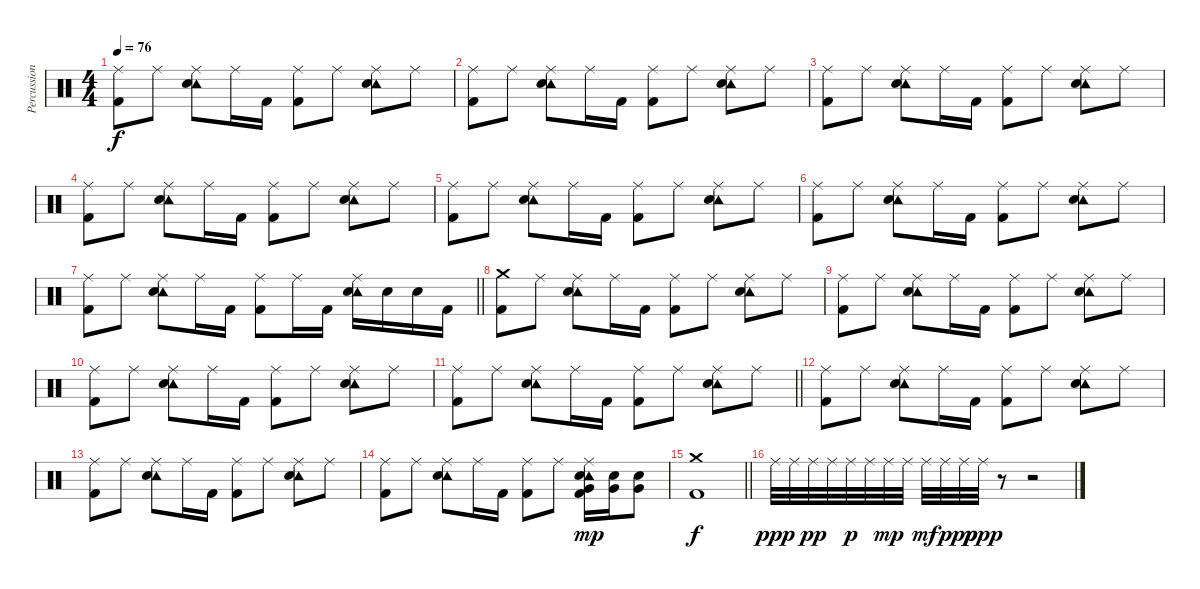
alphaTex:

\track ("Percussion" "Percussion") {instrument percussion}
\staff {score}
\articulation defaults
\ts (4 4)
\tempo 76
\clef neutral
\ks c
("Ride (middle)" "Kick (hit) 2").8{dy f} "Ride (middle)".8 ("Ride (middle)" "Tambourine (hit)" "Electric Snare (hit)").8 "Ride (middle)".16 "Kick (hit) 2".16 ("Ride (middle)" "Kick (hit) 2").8 "Ride (middle)".8 ("Ride (middle)" "Tambourine (hit)" "Electric Snare (hit)").8 "Ride (middle)".8 |
("Ride (middle)" "Kick (hit) 2").8 "Ride (middle)".8 ("Ride (middle)" "Tambourine (hit)" "Electric Snare (hit)").8 "Ride (middle)".16 "Kick (hit) 2".16 ("Ride (middle)" "Kick (hit) 2").8 "Ride (middle)".8 ("Ride (middle)" "Tambourine (hit)" "Electric Snare (hit)").8 "Ride (middle)".8 |
("Ride (middle)" "Kick (hit) 2").8 "Ride (middle)".8 ("Ride (middle)" "Tambourine (hit)" "Electric Snare (hit)").8 "Ride (middle)".16 "Kick (hit) 2".16 ("Ride (middle)" "Kick (hit) 2").8 "Ride (middle)".8 ("Ride (middle)" "Tambourine (hit)" "Electric Snare (hit)").8 "Ride (middle)".8 |
("Ride (middle)" "Kick (hit) 2").8 "Ride (middle)".8 ("Ride (middle)" "Tambourine (hit)" "Electric Snare (hit)").8 "Ride (middle)".16 "Kick (hit) 2".16 ("Ride (middle)" "Kick (hit) 2").8 "Ride (middle)".8 ("Ride (middle)" "Tambourine (hit)" "Electric Snare (hit)").8 "Ride (middle)".8 |
("Ride (middle)" "Kick (hit) 2").8 "Ride (middle)".8 ("Ride (middle)" "Tambourine (hit)" "Electric Snare (hit)").8 "Ride (middle)".16 "Kick (hit) 2".16 ("Ride (middle)" "Kick (hit) 2").8 "Ride (middle)".8 ("Ride (middle)" "Tambourine (hit)" "Electric Snare (hit)").8 "Ride (middle)".8 |
("Ride (middle)" "Kick (hit) 2").8 "Ride (middle)".8 ("Ride (middle)" "Tambourine (hit)" "Electric Snare (hit)").8 "Ride (middle)".16 "Kick (hit) 2".16 ("Ride (middle)" "Kick (hit) 2").8 "Ride (middle)".8 ("Ride (middle)" "Tambourine (hit)" "Electric Snare (hit)").8 "Ride (middle)".8 |
\barLineRight lightlight
("Ride (middle)" "Kick (hit) 2").8 "Ride (middle)".8 ("Ride (middle)" "Tambourine (hit)" "Electric Snare (hit)").8 "Ride (middle)".16 "Kick (hit) 2".16 ("Ride (middle)" "Kick (hit) 2").8 "Ride (middle)".16 "Kick (hit) 2".16 ("Ride (middle)" "Tambourine (hit)" "Electric Snare (hit)").16 "Electric Snare (hit)".16 "Electric Snare (hit)".16 "Kick (hit) 2".16 |
("Crash medium (hit)" "Kick (hit) 2").8 "Ride (middle)".8 ("Ride (middle)" "Tambourine (hit)" "Electric Snare (hit)").8 "Ride (middle)".16 "Kick (hit) 2".16 ("Ride (middle)" "Kick (hit) 2").8 "Ride (middle)".8 ("Ride (middle)" "Tambourine (hit)" "Electric Snare (hit)").8 "Ride (middle)".8 |
("Ride (middle)" "Kick (hit) 2").8 "Ride (middle)".8 ("Ride (middle)" "Tambourine (hit)" "Electric Snare (hit)").8 "Ride (middle)".16 "Kick (hit) 2".16 ("Ride (middle)" "Kick (hit) 2").8 "Ride (middle)".8 ("Ride (middle)" "Tambourine (hit)" "Electric Snare (hit)").8 "Ride (middle)".8 |
("Ride (middle)" "Kick (hit) 2").8 "Ride (middle)".8 ("Ride (middle)" "Tambourine (hit)" "Electric Snare (hit)").8 "Ride (middle)".16 "Kick (hit) 2".16 ("Ride (middle)" "Kick (hit) 2").8 "Ride (middle)".8 ("Ride (middle)" "Tambourine (hit)" "Electric Snare (hit)").8 "Ride (middle)".8 |
\barLineRight lightlight
("Ride (middle)" "Kick (hit) 2").8 "Ride (middle)".8 ("Ride (middle)" "Tambourine (hit)" "Electric Snare (hit)").8 "Ride (middle)".16 "Kick (hit) 2".16 ("Ride (middle)" "Kick (hit) 2").8 "Ride (middle)".8 ("Ride (middle)" "Tambourine (hit)" "Electric Snare (hit)").8 "Ride (middle)".8 |
("Ride (middle)" "Kick (hit) 2").8 "Ride (middle)".8 ("Ride (middle)" "Tambourine (hit)" "Electric Snare (hit)").8 "Ride (middle)".16 "Kick (hit) 2".16 ("Ride (middle)" "Kick (hit) 2").8 "Ride (middle)".8 ("Ride (middle)" "Tambourine (hit)" "Electric Snare (hit)").8 "Ride (middle)".8 |
("Ride (middle)" "Kick (hit) 2").8 "Ride (middle)".8 ("Ride (middle)" "Tambourine (hit)" "Electric Snare (hit)").8 "Ride (middle)".16 "Kick (hit) 2".16 ("Ride (middle)" "Kick (hit) 2").8 "Ride (middle)".8 ("Ride (middle)" "Tambourine (hit)" "Electric Snare (hit)").8 "Ride (middle)".8 |
("Ride (middle)" "Kick (hit) 2").8 "Ride (middle)".8 ("Ride (middle)" "Tambourine (hit)" "Electric Snare (hit)").8 "Ride (middle)".16 "Kick (hit) 2".16 ("Ride (middle)" "Kick (hit) 2").8 "Ride (middle)".8 ("Ride (middle)" "Tambourine (hit)" "Very Low Tom (hit)" "Electric Snare (hit)" "Kick (hit) 2").16{dy mp} ("Very Low Tom (hit)" "Electric Snare (hit)").16 ("Very Low Tom (hit)" "Electric Snare (hit)").8 |
\barLineRight lightlight
("Crash medium (hit)" "Kick (hit) 2").1{dy f} |
"Ride (middle)".32{dy ppp} "Ride (middle)".32 "Ride (middle)".32{dy pp} "Ride (middle)".32 "Ride (middle)".32{dy p} "Ride (middle)".32 "Ride (middle)".32{dy mp} "Ride (middle)".32 "Ride (middle)".32{dy mf} "Ride (middle)".32{dy p} "Ride (middle)".32{dy pp} "Ride (middle)".32{dy ppp} r.8 r.2
